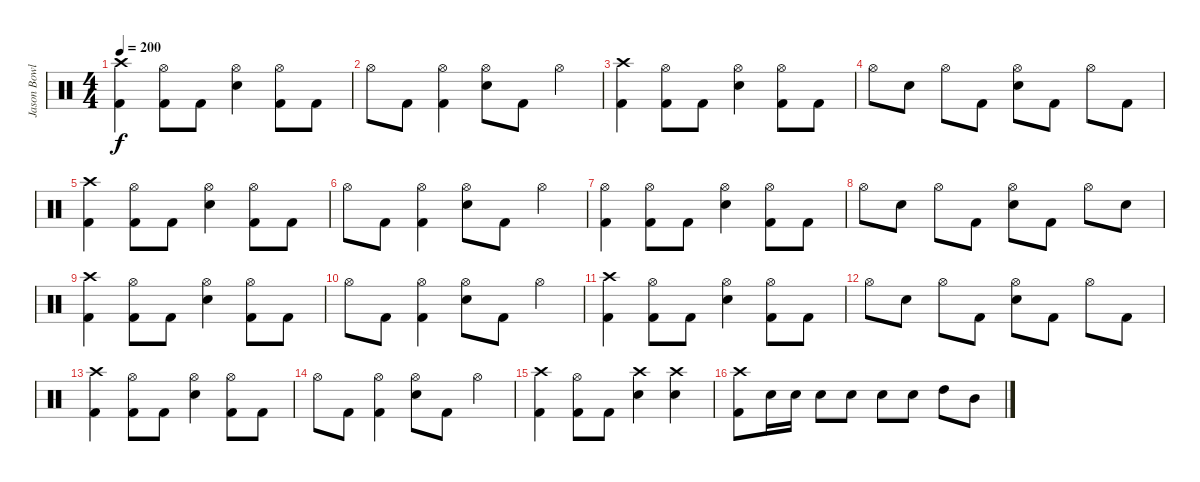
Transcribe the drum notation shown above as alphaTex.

\track ("Jason Bowld" "Jason Bowl") {instrument percussion}
\staff {score}
\articulation defaults
\ts (4 4)
\tempo 200
\clef neutral
\ks c
("Crash high (hit)" "Kick (hit) 2").4{dy f} ("Hi-Hat (open)" "Kick (hit) 2").8 "Kick (hit) 2".8 ("Hi-Hat (open)" "Snare (hit) 2").4 ("Hi-Hat (open)" "Kick (hit) 2").8 "Kick (hit) 2".8 |
"Hi-Hat (open)".8 "Kick (hit) 2".8 ("Hi-Hat (open)" "Kick (hit) 2").4 ("Hi-Hat (open)" "Snare (hit) 2").8 "Kick (hit) 2".8 "Hi-Hat (open)".4 |
("Crash high (hit)" "Kick (hit) 2").4 ("Hi-Hat (open)" "Kick (hit) 2").8 "Kick (hit) 2".8 ("Hi-Hat (open)" "Snare (hit) 2").4 ("Hi-Hat (open)" "Kick (hit) 2").8 "Kick (hit) 2".8 |
"Hi-Hat (open)".8 "Snare (hit) 2".8 "Hi-Hat (open)".8 "Kick (hit) 2".8 ("Hi-Hat (open)" "Snare (hit) 2").8 "Kick (hit) 2".8 "Hi-Hat (open)".8 "Kick (hit) 2".8 |
("Crash high (hit)" "Kick (hit) 2").4 ("Hi-Hat (open)" "Kick (hit) 2").8 "Kick (hit) 2".8 ("Hi-Hat (open)" "Snare (hit) 2").4 ("Hi-Hat (open)" "Kick (hit) 2").8 "Kick (hit) 2".8 |
"Hi-Hat (open)".8 "Kick (hit) 2".8 ("Hi-Hat (open)" "Kick (hit) 2").4 ("Hi-Hat (open)" "Snare (hit) 2").8 "Kick (hit) 2".8 "Hi-Hat (open)".4 |
("Hi-Hat (open)" "Kick (hit) 2").4 ("Hi-Hat (open)" "Kick (hit) 2").8 "Kick (hit) 2".8 ("Hi-Hat (open)" "Snare (hit) 2").4 ("Hi-Hat (open)" "Kick (hit) 2").8 "Kick (hit) 2".8 |
"Hi-Hat (open)".8 "Snare (hit) 2".8 "Hi-Hat (open)".8 "Kick (hit) 2".8 ("Hi-Hat (open)" "Snare (hit) 2").8 "Kick (hit) 2".8 "Hi-Hat (open)".8 "Snare (hit) 2".8 |
("Crash high (hit)" "Kick (hit) 2").4 ("Hi-Hat (open)" "Kick (hit) 2").8 "Kick (hit) 2".8 ("Hi-Hat (open)" "Snare (hit) 2").4 ("Hi-Hat (open)" "Kick (hit) 2").8 "Kick (hit) 2".8 |
"Hi-Hat (open)".8 "Kick (hit) 2".8 ("Hi-Hat (open)" "Kick (hit) 2").4 ("Hi-Hat (open)" "Snare (hit) 2").8 "Kick (hit) 2".8 "Hi-Hat (open)".4 |
("Crash high (hit)" "Kick (hit) 2").4 ("Hi-Hat (open)" "Kick (hit) 2").8 "Kick (hit) 2".8 ("Hi-Hat (open)" "Snare (hit) 2").4 ("Hi-Hat (open)" "Kick (hit) 2").8 "Kick (hit) 2".8 |
"Hi-Hat (open)".8 "Snare (hit) 2".8 "Hi-Hat (open)".8 "Kick (hit) 2".8 ("Hi-Hat (open)" "Snare (hit) 2").8 "Kick (hit) 2".8 "Hi-Hat (open)".8 "Kick (hit) 2".8 |
("Crash high (hit)" "Kick (hit) 2").4 ("Hi-Hat (open)" "Kick (hit) 2").8 "Kick (hit) 2".8 ("Hi-Hat (open)" "Snare (hit) 2").4 ("Hi-Hat (open)" "Kick (hit) 2").8 "Kick (hit) 2".8 |
"Hi-Hat (open)".8 "Kick (hit) 2".8 ("Hi-Hat (open)" "Kick (hit) 2").4 ("Hi-Hat (open)" "Snare (hit) 2").8 "Kick (hit) 2".8 "Hi-Hat (open)".4 |
("Crash high (hit)" "Kick (hit) 2").4 ("Hi-Hat (open)" "Kick (hit) 2").8 "Kick (hit) 2".8 ("Crash high (hit)" "Snare (hit) 2").4 ("Crash high (hit)" "Snare (hit) 2").4 |
("Crash high (hit)" "Kick (hit) 2").8 "Snare (hit) 2".16 "Snare (hit) 2".16 "Snare (hit) 2".8 "Snare (hit) 2".8 "Snare (hit) 2".8 "Snare (hit) 2".8 "High Tom (hit)".8 "Mid Tom (hit)".8
